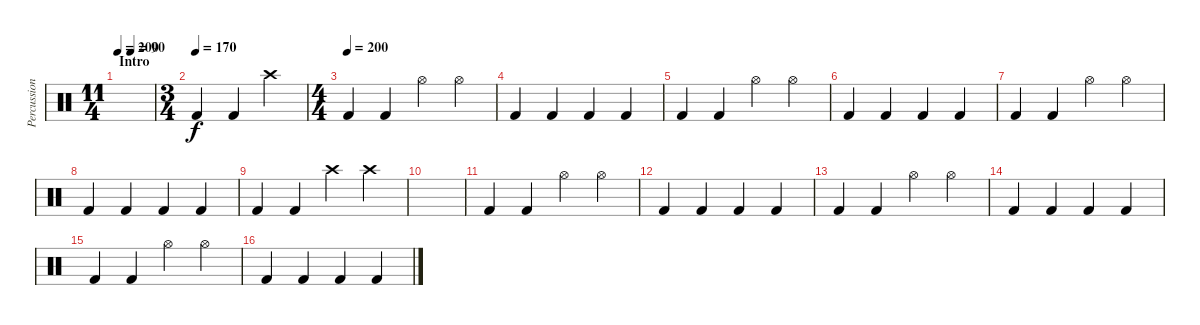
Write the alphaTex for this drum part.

\track ("Percussion" "Percussion") {instrument percussion}
\staff {score}
\articulation defaults
\ts (11 4)
\section ("" "Intro")
\tempo 200
\tempo 120
\tempo (90 0.36363636363636365)
\tempo 200
\clef neutral
\ks c
|
\ts (3 4)
\tempo (170)
"Kick (hit) 2".4 "Kick (hit) 2".4 "Crash high (hit)".4 |
\ts (4 4)
\tempo (200)
"Kick (hit) 2".4 "Kick (hit) 2".4 "Hi-Hat (open)".4 "Hi-Hat (open)".4 |
"Kick (hit) 2".4 "Kick (hit) 2".4 "Kick (hit) 2".4 "Kick (hit) 2".4 |
"Kick (hit) 2".4 "Kick (hit) 2".4 "Hi-Hat (open)".4 "Hi-Hat (open)".4 |
"Kick (hit) 2".4 "Kick (hit) 2".4 "Kick (hit) 2".4 "Kick (hit) 2".4 |
"Kick (hit) 2".4 "Kick (hit) 2".4 "Hi-Hat (open)".4 "Hi-Hat (open)".4 |
"Kick (hit) 2".4 "Kick (hit) 2".4 "Kick (hit) 2".4 "Kick (hit) 2".4 |
"Kick (hit) 2".4 "Kick (hit) 2".4 "Crash high (hit)".4 "Crash high (hit)".4 |
|
"Kick (hit) 2".4 "Kick (hit) 2".4 "Hi-Hat (open)".4 "Hi-Hat (open)".4 |
"Kick (hit) 2".4 "Kick (hit) 2".4 "Kick (hit) 2".4 "Kick (hit) 2".4 |
"Kick (hit) 2".4 "Kick (hit) 2".4 "Hi-Hat (open)".4 "Hi-Hat (open)".4 |
"Kick (hit) 2".4 "Kick (hit) 2".4 "Kick (hit) 2".4 "Kick (hit) 2".4 |
"Kick (hit) 2".4 "Kick (hit) 2".4 "Hi-Hat (open)".4 "Hi-Hat (open)".4 |
"Kick (hit) 2".4 "Kick (hit) 2".4 "Kick (hit) 2".4 "Kick (hit) 2".4
